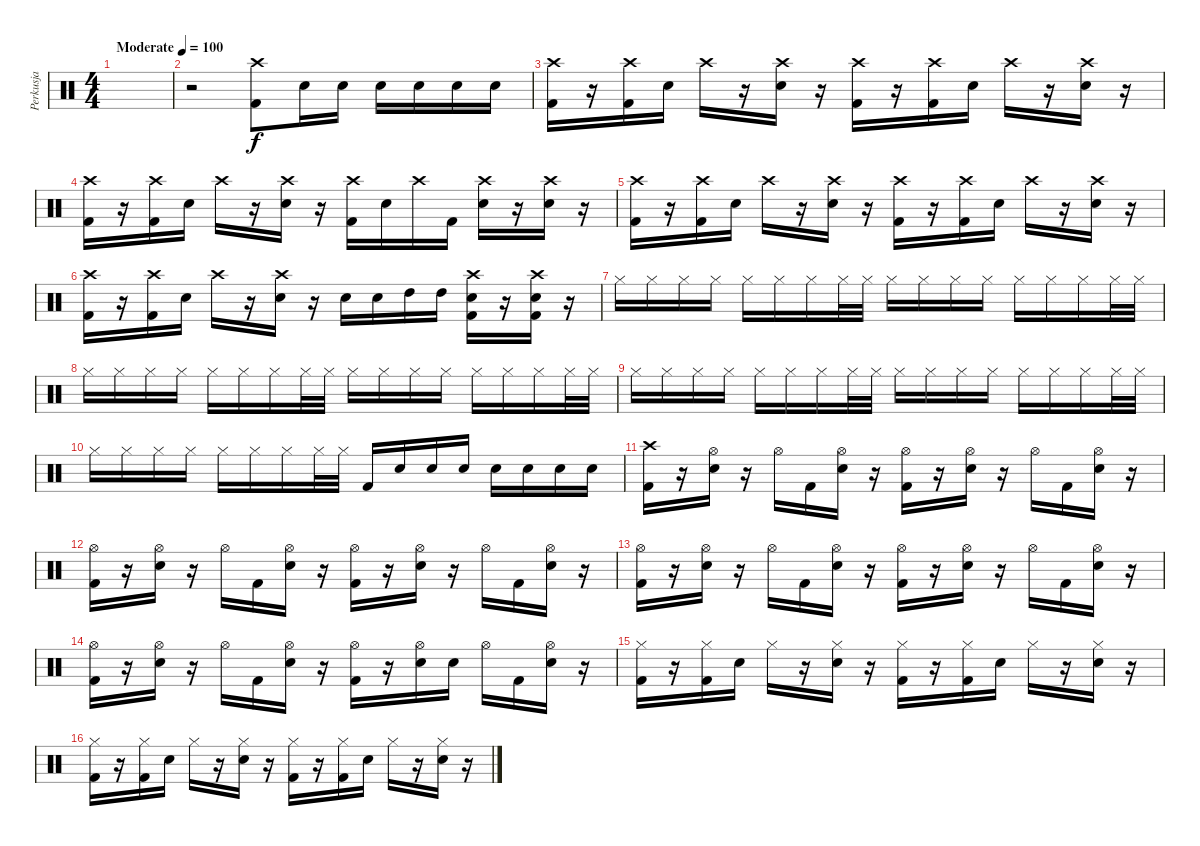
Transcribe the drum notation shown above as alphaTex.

\track ("Perkusja" "Perkusja") {instrument percussion}
\staff {score}
\articulation defaults
\ts (4 4)
\tempo (100 "Moderate")
\clef neutral
\ks c
|
r.2 ("Crash high (hit)" "Kick (hit) 2").8 "Electric Snare (hit)".16 "Electric Snare (hit)".16 "Electric Snare (hit)".16 "Electric Snare (hit)".16 "Electric Snare (hit)".16 "Electric Snare (hit)".16 |
("Crash high (hit)" "Kick (hit) 2").16 r.16 ("Crash high (hit)" "Kick (hit) 2").16 "Electric Snare (hit)".16 "Crash high (hit)".16 r.16 ("Crash high (hit)" "Electric Snare (hit)").16 r.16 ("Crash high (hit)" "Kick (hit) 2").16 r.16 ("Crash high (hit)" "Kick (hit) 2").16 "Electric Snare (hit)".16 "Crash high (hit)".16 r.16 ("Crash high (hit)" "Electric Snare (hit)").16 r.16 |
("Crash high (hit)" "Kick (hit) 2").16 r.16 ("Crash high (hit)" "Kick (hit) 2").16 "Electric Snare (hit)".16 "Crash high (hit)".16 r.16 ("Crash high (hit)" "Electric Snare (hit)").16 r.16 ("Crash high (hit)" "Kick (hit) 2").16 "Electric Snare (hit)".16 "Crash high (hit)".16 "Kick (hit) 2".16 ("Crash high (hit)" "Electric Snare (hit)").16 r.16 ("Crash high (hit)" "Electric Snare (hit)").16 r.16 |
("Crash high (hit)" "Kick (hit) 2").16 r.16 ("Crash high (hit)" "Kick (hit) 2").16 "Electric Snare (hit)".16 "Crash high (hit)".16 r.16 ("Crash high (hit)" "Electric Snare (hit)").16 r.16 ("Crash high (hit)" "Kick (hit) 2").16 r.16 ("Crash high (hit)" "Kick (hit) 2").16 "Electric Snare (hit)".16 "Crash high (hit)".16 r.16 ("Crash high (hit)" "Electric Snare (hit)").16 r.16 |
("Crash high (hit)" "Kick (hit) 2").16 r.16 ("Crash high (hit)" "Kick (hit) 2").16 "Electric Snare (hit)".16 "Crash high (hit)".16 r.16 ("Crash high (hit)" "Electric Snare (hit)").16 r.16 "Electric Snare (hit)".16 "Electric Snare (hit)".16 "High Tom (hit)".16 "High Tom (hit)".16 ("Crash high (hit)" "Electric Snare (hit)" "Kick (hit) 2").16 r.16 ("Crash high (hit)" "Electric Snare (hit)" "Kick (hit) 2").16 r.16 |
"Hi-Hat (closed)".16 "Hi-Hat (closed)".16 "Hi-Hat (closed)".16 "Hi-Hat (closed)".16 "Hi-Hat (closed)".16 "Hi-Hat (closed)".16 "Hi-Hat (closed)".16 "Hi-Hat (closed)".32 "Hi-Hat (closed)".32 "Hi-Hat (closed)".16 "Hi-Hat (closed)".16 "Hi-Hat (closed)".16 "Hi-Hat (closed)".16 "Hi-Hat (closed)".16 "Hi-Hat (closed)".16 "Hi-Hat (closed)".16 "Hi-Hat (closed)".32 "Hi-Hat (closed)".32 |
"Hi-Hat (closed)".16 "Hi-Hat (closed)".16 "Hi-Hat (closed)".16 "Hi-Hat (closed)".16 "Hi-Hat (closed)".16 "Hi-Hat (closed)".16 "Hi-Hat (closed)".16 "Hi-Hat (closed)".32 "Hi-Hat (closed)".32 "Hi-Hat (closed)".16 "Hi-Hat (closed)".16 "Hi-Hat (closed)".16 "Hi-Hat (closed)".16 "Hi-Hat (closed)".16 "Hi-Hat (closed)".16 "Hi-Hat (closed)".16 "Hi-Hat (closed)".32 "Hi-Hat (closed)".32 |
"Hi-Hat (closed)".16 "Hi-Hat (closed)".16 "Hi-Hat (closed)".16 "Hi-Hat (closed)".16 "Hi-Hat (closed)".16 "Hi-Hat (closed)".16 "Hi-Hat (closed)".16 "Hi-Hat (closed)".32 "Hi-Hat (closed)".32 "Hi-Hat (closed)".16 "Hi-Hat (closed)".16 "Hi-Hat (closed)".16 "Hi-Hat (closed)".16 "Hi-Hat (closed)".16 "Hi-Hat (closed)".16 "Hi-Hat (closed)".16 "Hi-Hat (closed)".32 "Hi-Hat (closed)".32 |
"Hi-Hat (closed)".16 "Hi-Hat (closed)".16 "Hi-Hat (closed)".16 "Hi-Hat (closed)".16 "Hi-Hat (closed)".16 "Hi-Hat (closed)".16 "Hi-Hat (closed)".16 "Hi-Hat (closed)".32 "Hi-Hat (closed)".32 "Kick (hit) 2".16 "Electric Snare (hit)".16 "Electric Snare (hit)".16 "Electric Snare (hit)".16 "Electric Snare (hit)".16 "Electric Snare (hit)".16 "Electric Snare (hit)".16 "Electric Snare (hit)".16 |
("Crash high (hit)" "Kick (hit) 2").16 r.16 ("Hi-Hat (open)" "Electric Snare (hit)").16 r.16 "Hi-Hat (open)".16 "Kick (hit) 2".16 ("Hi-Hat (open)" "Electric Snare (hit)").16 r.16 ("Hi-Hat (open)" "Kick (hit) 2").16 r.16 ("Hi-Hat (open)" "Electric Snare (hit)").16 r.16 "Hi-Hat (open)".16 "Kick (hit) 2".16 ("Hi-Hat (open)" "Electric Snare (hit)").16 r.16 |
("Hi-Hat (open)" "Kick (hit) 2").16 r.16 ("Hi-Hat (open)" "Electric Snare (hit)").16 r.16 "Hi-Hat (open)".16 "Kick (hit) 2".16 ("Hi-Hat (open)" "Electric Snare (hit)").16 r.16 ("Hi-Hat (open)" "Kick (hit) 2").16 r.16 ("Hi-Hat (open)" "Electric Snare (hit)").16 r.16 "Hi-Hat (open)".16 "Kick (hit) 2".16 ("Hi-Hat (open)" "Electric Snare (hit)").16 r.16 |
("Hi-Hat (open)" "Kick (hit) 2").16 r.16 ("Hi-Hat (open)" "Electric Snare (hit)").16 r.16 "Hi-Hat (open)".16 "Kick (hit) 2".16 ("Hi-Hat (open)" "Electric Snare (hit)").16 r.16 ("Hi-Hat (open)" "Kick (hit) 2").16 r.16 ("Hi-Hat (open)" "Electric Snare (hit)").16 r.16 "Hi-Hat (open)".16 "Kick (hit) 2".16 ("Hi-Hat (open)" "Electric Snare (hit)").16 r.16 |
("Hi-Hat (open)" "Kick (hit) 2").16 r.16 ("Hi-Hat (open)" "Electric Snare (hit)").16 r.16 "Hi-Hat (open)".16 "Kick (hit) 2".16 ("Hi-Hat (open)" "Electric Snare (hit)").16 r.16 ("Hi-Hat (open)" "Kick (hit) 2").16 r.16 ("Hi-Hat (open)" "Electric Snare (hit)").16 "Electric Snare (hit)".16 "Hi-Hat (open)".16 "Kick (hit) 2".16 ("Hi-Hat (open)" "Electric Snare (hit)").16 r.16 |
("Hi-Hat (closed)" "Kick (hit) 2").16 r.16 ("Hi-Hat (closed)" "Kick (hit) 2").16 "Electric Snare (hit)".16 "Hi-Hat (closed)".16 r.16 ("Hi-Hat (closed)" "Electric Snare (hit)").16 r.16 ("Hi-Hat (closed)" "Kick (hit) 2").16 r.16 ("Hi-Hat (closed)" "Kick (hit) 2").16 "Electric Snare (hit)".16 "Hi-Hat (closed)".16 r.16 ("Hi-Hat (closed)" "Electric Snare (hit)").16 r.16 |
("Hi-Hat (closed)" "Kick (hit) 2").16 r.16 ("Hi-Hat (closed)" "Kick (hit) 2").16 "Electric Snare (hit)".16 "Hi-Hat (closed)".16 r.16 ("Hi-Hat (closed)" "Electric Snare (hit)").16 r.16 ("Hi-Hat (closed)" "Kick (hit) 2").16 r.16 ("Hi-Hat (closed)" "Kick (hit) 2").16 "Electric Snare (hit)".16 "Hi-Hat (closed)".16 r.16 ("Hi-Hat (closed)" "Electric Snare (hit)").16 r.16
